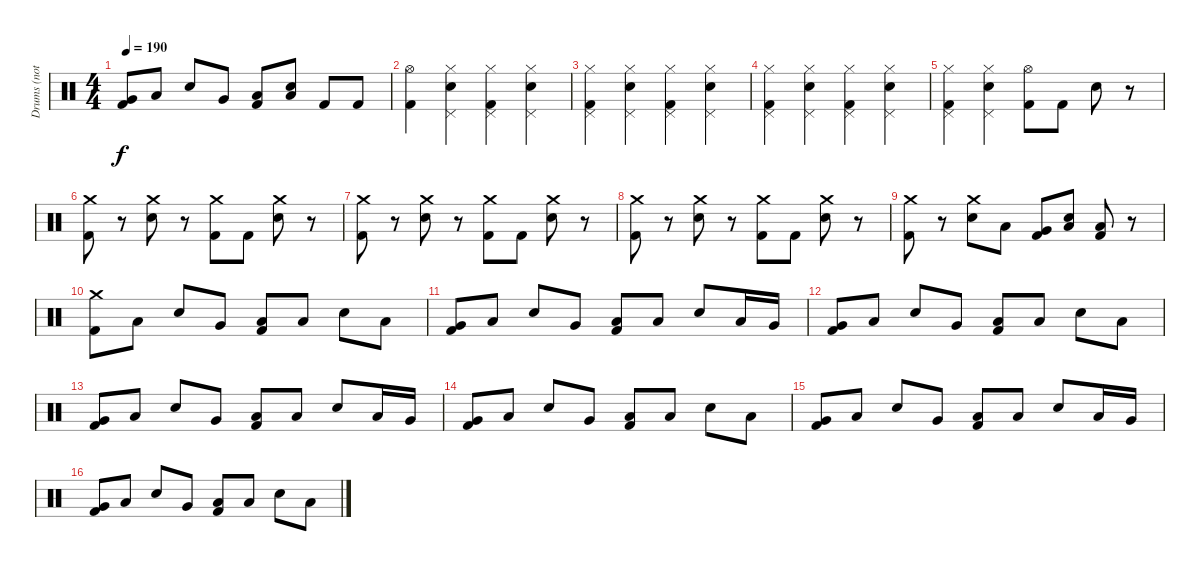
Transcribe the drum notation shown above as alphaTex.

\track ("Drums (not correct)" "Drums (not") {instrument percussion}
\staff {score}
\articulation defaults
\ts (4 4)
\tempo 190
\clef neutral
\ks c
("Very Low Tom (hit)" "Kick (hit) 2").8{dy f} "Low Floor Tom (hit)".8 "Electric Snare (hit)".8 "Very Low Tom (hit)".8 ("Low Floor Tom (hit)" "Kick (hit) 2").8 ("Low Floor Tom (hit)" "Electric Snare (hit)").8 "Kick (hit) 2".8 "Kick (hit) 2".8 |
("Hi-Hat (open)" "Kick (hit) 2").4 ("Pedal Hi-Hat (hit)" "Hi-Hat (closed)" "Electric Snare (hit)").4 ("Pedal Hi-Hat (hit)" "Hi-Hat (closed)" "Kick (hit) 2").4 ("Pedal Hi-Hat (hit)" "Hi-Hat (closed)" "Electric Snare (hit)").4 |
("Pedal Hi-Hat (hit)" "Hi-Hat (closed)" "Kick (hit) 2").4 ("Pedal Hi-Hat (hit)" "Hi-Hat (closed)" "Electric Snare (hit)").4 ("Pedal Hi-Hat (hit)" "Hi-Hat (closed)" "Kick (hit) 2").4 ("Pedal Hi-Hat (hit)" "Hi-Hat (closed)" "Electric Snare (hit)").4 |
("Pedal Hi-Hat (hit)" "Hi-Hat (closed)" "Kick (hit) 2").4 ("Pedal Hi-Hat (hit)" "Hi-Hat (closed)" "Electric Snare (hit)").4 ("Pedal Hi-Hat (hit)" "Hi-Hat (closed)" "Kick (hit) 2").4 ("Pedal Hi-Hat (hit)" "Hi-Hat (closed)" "Electric Snare (hit)").4 |
("Pedal Hi-Hat (hit)" "Hi-Hat (closed)" "Kick (hit) 2").4 ("Pedal Hi-Hat (hit)" "Hi-Hat (closed)" "Electric Snare (hit)").4 ("Hi-Hat (open)" "Kick (hit) 2").8 "Kick (hit) 2".8 "Electric Snare (hit)".8 r.8 |
("Crash medium (hit)" "Kick (hit) 2").8 r.8 ("Crash medium (hit)" "Electric Snare (hit)").8 r.8 ("Crash medium (hit)" "Kick (hit) 2").8 "Kick (hit) 2".8 ("Crash medium (hit)" "Electric Snare (hit)").8 r.8 |
("Crash medium (hit)" "Kick (hit) 2").8 r.8 ("Crash medium (hit)" "Electric Snare (hit)").8 r.8 ("Crash medium (hit)" "Kick (hit) 2").8 "Kick (hit) 2".8 ("Crash medium (hit)" "Electric Snare (hit)").8 r.8 |
("Crash medium (hit)" "Kick (hit) 2").8 r.8 ("Crash medium (hit)" "Electric Snare (hit)").8 r.8 ("Crash medium (hit)" "Kick (hit) 2").8 "Kick (hit) 2".8 ("Crash medium (hit)" "Electric Snare (hit)").8 r.8 |
("Crash medium (hit)" "Kick (hit) 2").8 r.8 ("Crash medium (hit)" "Electric Snare (hit)").8 "Low Tom (hit)".8 ("Very Low Tom (hit)" "Kick (hit) 2").8 ("Low Tom (hit)" "Electric Snare (hit)").8 ("Low Tom (hit)" "Kick (hit) 2").8 r.8 |
("Crash medium (hit)" "Kick (hit) 2").8 "Low Floor Tom (hit)".8 "Electric Snare (hit)".8 "Very Low Tom (hit)".8 ("Low Floor Tom (hit)" "Kick (hit) 2").8 "Low Floor Tom (hit)".8 "Electric Snare (hit)".8 "Low Floor Tom (hit)".8 |
("Very Low Tom (hit)" "Kick (hit) 2").8 "Low Floor Tom (hit)".8 "Electric Snare (hit)".8 "Very Low Tom (hit)".8 ("Low Floor Tom (hit)" "Kick (hit) 2").8 "Low Floor Tom (hit)".8 "Electric Snare (hit)".8 "Low Tom (hit)".16 "Very Low Tom (hit)".16 |
("Very Low Tom (hit)" "Kick (hit) 2").8 "Low Floor Tom (hit)".8 "Electric Snare (hit)".8 "Very Low Tom (hit)".8 ("Low Floor Tom (hit)" "Kick (hit) 2").8 "Low Floor Tom (hit)".8 "Electric Snare (hit)".8 "Low Floor Tom (hit)".8 |
("Very Low Tom (hit)" "Kick (hit) 2").8 "Low Floor Tom (hit)".8 "Electric Snare (hit)".8 "Very Low Tom (hit)".8 ("Low Floor Tom (hit)" "Kick (hit) 2").8 "Low Floor Tom (hit)".8 "Electric Snare (hit)".8 "Low Tom (hit)".16 "Very Low Tom (hit)".16 |
("Very Low Tom (hit)" "Kick (hit) 2").8 "Low Floor Tom (hit)".8 "Electric Snare (hit)".8 "Very Low Tom (hit)".8 ("Low Floor Tom (hit)" "Kick (hit) 2").8 "Low Floor Tom (hit)".8 "Electric Snare (hit)".8 "Low Floor Tom (hit)".8 |
("Very Low Tom (hit)" "Kick (hit) 2").8 "Low Floor Tom (hit)".8 "Electric Snare (hit)".8 "Very Low Tom (hit)".8 ("Low Floor Tom (hit)" "Kick (hit) 2").8 "Low Floor Tom (hit)".8 "Electric Snare (hit)".8 "Low Tom (hit)".16 "Very Low Tom (hit)".16 |
("Very Low Tom (hit)" "Kick (hit) 2").8 "Low Floor Tom (hit)".8 "Electric Snare (hit)".8 "Very Low Tom (hit)".8 ("Low Floor Tom (hit)" "Kick (hit) 2").8 "Low Floor Tom (hit)".8 "Electric Snare (hit)".8 "Low Floor Tom (hit)".8
